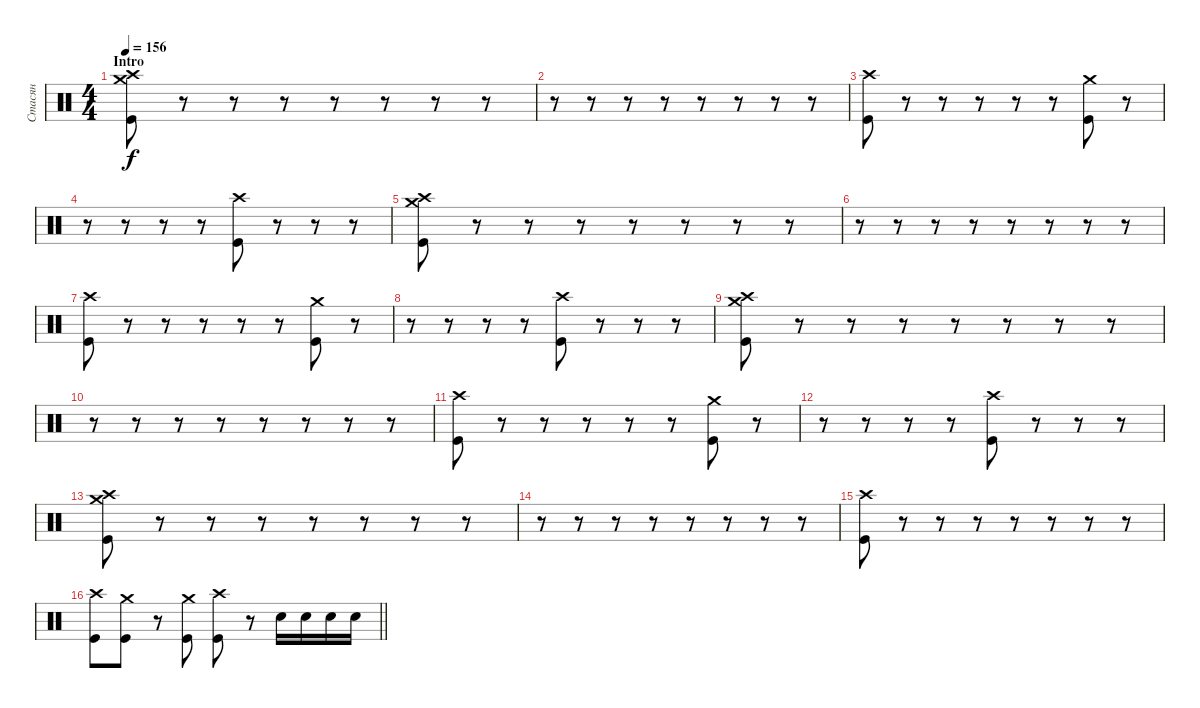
\track ("Стасян" "Стасян") {instrument percussion}
\staff
\articulation defaults
\ts (4 4)
\section ("" "Intro")
\tempo 156
\clef neutral
\ks c
("Kick (hit)" "Crash high (hit)" "Crash medium (hit)").8{dy f} r.8 r.8 r.8 r.8 r.8 r.8 r.8 |
r.8 r.8 r.8 r.8 r.8 r.8 r.8 r.8 |
("Kick (hit)" "Crash high (hit)").8 r.8 r.8 r.8 r.8 r.8 ("Crash medium (hit)" "Kick (hit)").8 r.8 |
r.8 r.8 r.8 r.8 ("Kick (hit)" "Crash high (hit)").8 r.8 r.8 r.8 |
("Kick (hit)" "Crash high (hit)" "Crash medium (hit)").8 r.8 r.8 r.8 r.8 r.8 r.8 r.8 |
r.8 r.8 r.8 r.8 r.8 r.8 r.8 r.8 |
("Kick (hit)" "Crash high (hit)").8 r.8 r.8 r.8 r.8 r.8 ("Crash medium (hit)" "Kick (hit)").8 r.8 |
r.8 r.8 r.8 r.8 ("Kick (hit)" "Crash high (hit)").8 r.8 r.8 r.8 |
("Kick (hit)" "Crash high (hit)" "Crash medium (hit)").8 r.8 r.8 r.8 r.8 r.8 r.8 r.8 |
r.8 r.8 r.8 r.8 r.8 r.8 r.8 r.8 |
("Kick (hit)" "Crash high (hit)").8 r.8 r.8 r.8 r.8 r.8 ("Crash medium (hit)" "Kick (hit)").8 r.8 |
r.8 r.8 r.8 r.8 ("Kick (hit)" "Crash high (hit)").8 r.8 r.8 r.8 |
("Kick (hit)" "Crash high (hit)" "Crash medium (hit)").8 r.8 r.8 r.8 r.8 r.8 r.8 r.8 |
r.8 r.8 r.8 r.8 r.8 r.8 r.8 r.8 |
("Kick (hit)" "Crash high (hit)").8 r.8 r.8 r.8 r.8 r.8 r.8 r.8 |
\barLineRight lightlight
("Kick (hit)" "Crash high (hit)").8 ("Kick (hit)" "Crash medium (hit)").8 r.8 ("Kick (hit)" "Crash medium (hit)").8 ("Kick (hit)" "Crash high (hit)").8 r.8 "Snare (hit) 2".16 "Snare (hit) 2".16 "Snare (hit) 2".16 "Snare (hit) 2".16
